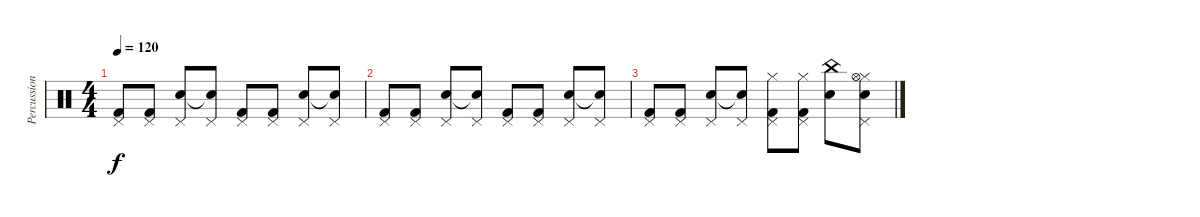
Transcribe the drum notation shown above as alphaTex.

\track ("Percussions" "Percussion") {instrument percussion}
\staff {score}
\articulation defaults
\ts (4 4)
\tempo 120
\clef neutral
\ks c
("Pedal Hi-Hat (hit)" "Kick (hit) 2").8{dy f} ("Pedal Hi-Hat (hit)" "Kick (hit) 2").8 ("Pedal Hi-Hat (hit)" "Snare (hit) 2").8 ("Pedal Hi-Hat (hit)" "Snare (hit)"{t}).8 ("Pedal Hi-Hat (hit)" "Kick (hit) 2").8 ("Pedal Hi-Hat (hit)" "Kick (hit) 2").8 ("Pedal Hi-Hat (hit)" "Snare (hit) 2").8 ("Pedal Hi-Hat (hit)" "Snare (hit)"{t}).8 |
("Pedal Hi-Hat (hit)" "Kick (hit) 2").8 ("Pedal Hi-Hat (hit)" "Kick (hit) 2").8 ("Pedal Hi-Hat (hit)" "Snare (hit) 2").8 ("Pedal Hi-Hat (hit)" "Snare (hit)"{t}).8 ("Pedal Hi-Hat (hit)" "Kick (hit) 2").8 ("Pedal Hi-Hat (hit)" "Kick (hit) 2").8 ("Pedal Hi-Hat (hit)" "Snare (hit) 2").8 ("Pedal Hi-Hat (hit)" "Snare (hit)"{t}).8 |
("Pedal Hi-Hat (hit)" "Kick (hit) 2").8 ("Pedal Hi-Hat (hit)" "Kick (hit) 2").8 ("Pedal Hi-Hat (hit)" "Snare (hit) 2").8 ("Pedal Hi-Hat (hit)" "Snare (hit)"{t}).8 ("Pedal Hi-Hat (hit)" "Hi-Hat (closed)" "Kick (hit) 2").8 ("Pedal Hi-Hat (hit)" "Hi-Hat (closed)" "Kick (hit) 2").8 ("China (hit)" "Snare (hit) 2").8 ("Pedal Hi-Hat (hit)" "Hi-Hat (closed)" "Hi-Hat (open)" "Snare (hit)").8
